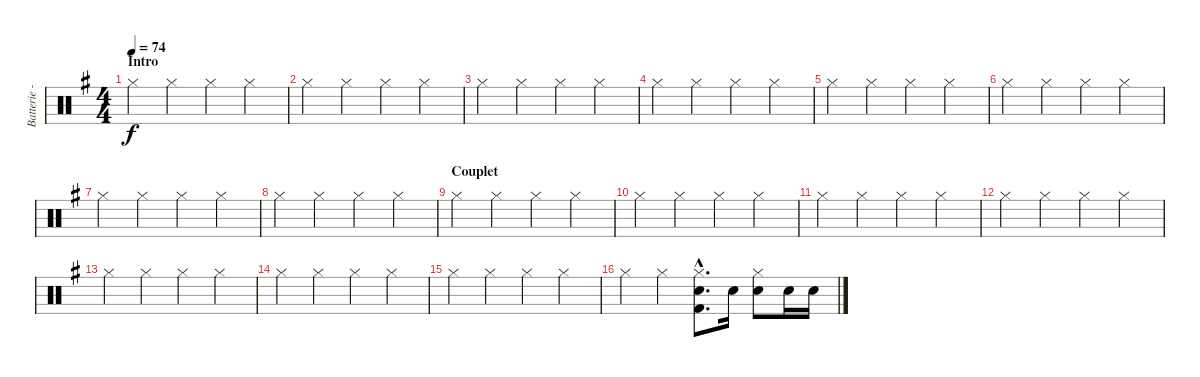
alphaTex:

\track ("Batterie - Romain" "Batterie -") {instrument percussion}
\staff {score}
\articulation defaults
\ts (4 4)
\section ("" "Intro")
\tempo 74
\clef neutral
\ks g "Hi-Hat (closed)".4{dy f} "Hi-Hat (closed)".4 "Hi-Hat (closed)".4 "Hi-Hat (closed)".4
|
"Hi-Hat (closed)".4 "Hi-Hat (closed)".4 "Hi-Hat (closed)".4 "Hi-Hat (closed)".4 |
"Hi-Hat (closed)".4 "Hi-Hat (closed)".4 "Hi-Hat (closed)".4 "Hi-Hat (closed)".4 |
"Hi-Hat (closed)".4 "Hi-Hat (closed)".4 "Hi-Hat (closed)".4 "Hi-Hat (closed)".4 |
"Hi-Hat (closed)".4 "Hi-Hat (closed)".4 "Hi-Hat (closed)".4 "Hi-Hat (closed)".4 |
"Hi-Hat (closed)".4 "Hi-Hat (closed)".4 "Hi-Hat (closed)".4 "Hi-Hat (closed)".4 |
"Hi-Hat (closed)".4 "Hi-Hat (closed)".4 "Hi-Hat (closed)".4 "Hi-Hat (closed)".4 |
"Hi-Hat (closed)".4 "Hi-Hat (closed)".4 "Hi-Hat (closed)".4 "Hi-Hat (closed)".4 |
\section ("" "Couplet")
"Hi-Hat (closed)".4 "Hi-Hat (closed)".4 "Hi-Hat (closed)".4 "Hi-Hat (closed)".4 |
"Hi-Hat (closed)".4 "Hi-Hat (closed)".4 "Hi-Hat (closed)".4 "Hi-Hat (closed)".4 |
"Hi-Hat (closed)".4 "Hi-Hat (closed)".4 "Hi-Hat (closed)".4 "Hi-Hat (closed)".4 |
"Hi-Hat (closed)".4 "Hi-Hat (closed)".4 "Hi-Hat (closed)".4 "Hi-Hat (closed)".4 |
"Hi-Hat (closed)".4 "Hi-Hat (closed)".4 "Hi-Hat (closed)".4 "Hi-Hat (closed)".4 |
"Hi-Hat (closed)".4 "Hi-Hat (closed)".4 "Hi-Hat (closed)".4 "Hi-Hat (closed)".4 |
"Hi-Hat (closed)".4 "Hi-Hat (closed)".4 "Hi-Hat (closed)".4 "Hi-Hat (closed)".4 |
"Hi-Hat (closed)".4 "Hi-Hat (closed)".4 ("Hi-Hat (closed)"{hac} "Snare (hit) 2"{hac} "Kick (hit) 2"{hac}).8{d} "Snare (hit) 2".16 ("Hi-Hat (closed)" "Snare (hit) 2").8 "Snare (hit) 2".16 "Snare (hit) 2".16
